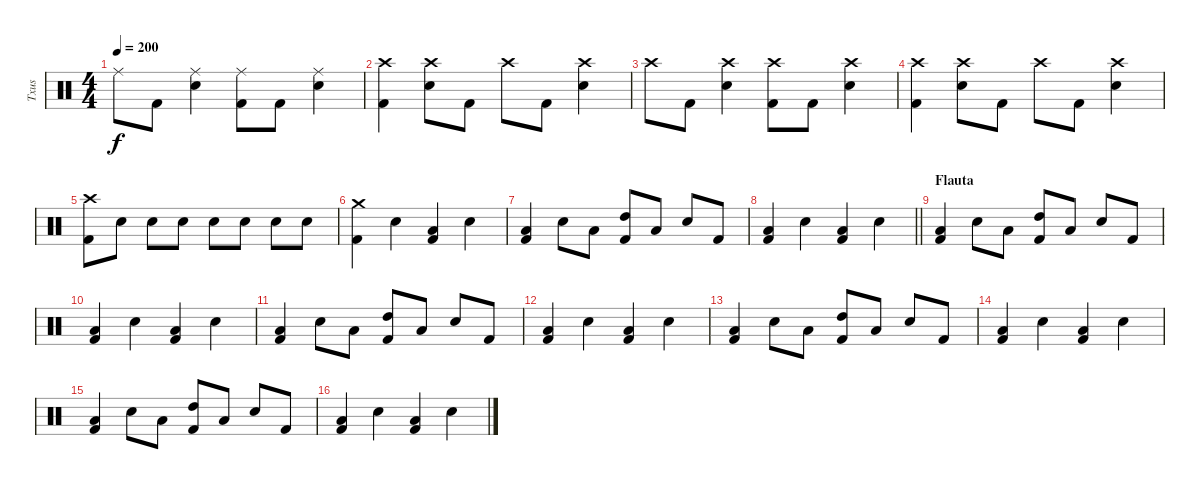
\track ("Txus" "Txus") {instrument percussion}
\staff {score}
\articulation defaults
\ts (4 4)
\tempo 200
\clef neutral
\ks c "Ride (middle)".8{dy f} "Kick (hit) 2".8
("Ride (middle)" "Snare (hit) 2").4 ("Ride (middle)" "Kick (hit) 2").8 "Kick (hit) 2".8 ("Ride (middle)" "Snare (hit) 2").4 |
("Crash high (hit)" "Kick (hit) 2").4 ("Crash high (hit)" "Snare (hit) 2").8 "Kick (hit) 2".8 "Crash high (hit)".8 "Kick (hit) 2".8 ("Crash high (hit)" "Snare (hit) 2").4 |
"Crash high (hit)".8 "Kick (hit) 2".8 ("Crash high (hit)" "Snare (hit) 2").4 ("Crash high (hit)" "Kick (hit) 2").8 "Kick (hit) 2".8 ("Crash high (hit)" "Snare (hit) 2").4 |
("Crash high (hit)" "Kick (hit) 2").4 ("Crash high (hit)" "Snare (hit) 2").8 "Kick (hit) 2".8 "Crash high (hit)".8 "Kick (hit) 2".8 ("Crash high (hit)" "Snare (hit) 2").4 |
("Crash high (hit)" "Kick (hit) 2").8 "Snare (hit) 2".8 "Snare (hit) 2".8 "Snare (hit) 2".8 "Snare (hit) 2".8 "Snare (hit) 2".8 "Snare (hit) 2".8 "Snare (hit) 2".8 |
("Crash medium (hit)" "Kick (hit) 2").4 "Snare (hit) 2".4 ("Low Tom (hit)" "Kick (hit) 2").4 "Snare (hit) 2".4 |
("Low Tom (hit)" "Kick (hit) 2").4 "Snare (hit) 2".8 "Low Tom (hit)".8 ("High Tom (hit)" "Kick (hit) 2").8 "Low Tom (hit)".8 "Snare (hit) 2".8 "Kick (hit) 2".8 |
\barLineRight lightlight
("Low Tom (hit)" "Kick (hit) 2").4 "Snare (hit) 2".4 ("Low Tom (hit)" "Kick (hit) 2").4 "Snare (hit) 2".4 |
\section ("" "Flauta")
("Low Tom (hit)" "Kick (hit) 2").4 "Snare (hit) 2".8 "Low Tom (hit)".8 ("High Tom (hit)" "Kick (hit) 2").8 "Low Tom (hit)".8 "Snare (hit) 2".8 "Kick (hit) 2".8 |
("Low Tom (hit)" "Kick (hit) 2").4 "Snare (hit) 2".4 ("Low Tom (hit)" "Kick (hit) 2").4 "Snare (hit) 2".4 |
("Low Tom (hit)" "Kick (hit) 2").4 "Snare (hit) 2".8 "Low Tom (hit)".8 ("High Tom (hit)" "Kick (hit) 2").8 "Low Tom (hit)".8 "Snare (hit) 2".8 "Kick (hit) 2".8 |
("Low Tom (hit)" "Kick (hit) 2").4 "Snare (hit) 2".4 ("Low Tom (hit)" "Kick (hit) 2").4 "Snare (hit) 2".4 |
("Low Tom (hit)" "Kick (hit) 2").4 "Snare (hit) 2".8 "Low Tom (hit)".8 ("High Tom (hit)" "Kick (hit) 2").8 "Low Tom (hit)".8 "Snare (hit) 2".8 "Kick (hit) 2".8 |
("Low Tom (hit)" "Kick (hit) 2").4 "Snare (hit) 2".4 ("Low Tom (hit)" "Kick (hit) 2").4 "Snare (hit) 2".4 |
("Low Tom (hit)" "Kick (hit) 2").4 "Snare (hit) 2".8 "Low Tom (hit)".8 ("High Tom (hit)" "Kick (hit) 2").8 "Low Tom (hit)".8 "Snare (hit) 2".8 "Kick (hit) 2".8 |
("Low Tom (hit)" "Kick (hit) 2").4 "Snare (hit) 2".4 ("Low Tom (hit)" "Kick (hit) 2").4 "Snare (hit) 2".4
